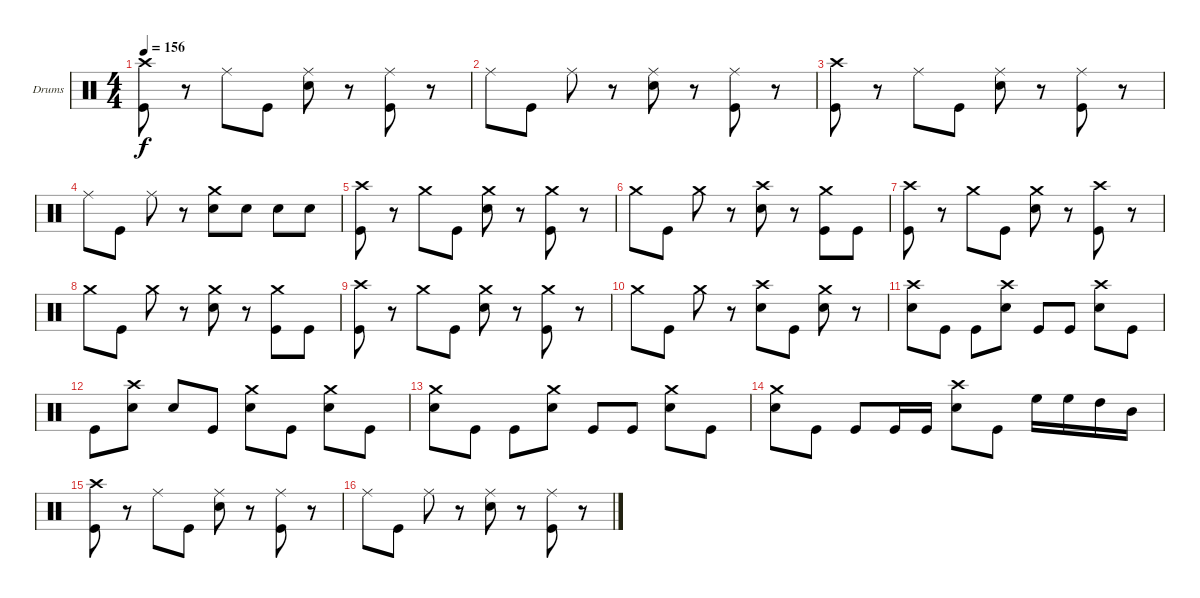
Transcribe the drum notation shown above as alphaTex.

\defaultSystemsLayout 4
\bracketExtendMode groupsimilarinstruments
\firstSystemTrackNameOrientation horizontal
\otherSystemsTrackNameOrientation horizontal
\track ("Anton Kubrak" "Drums") {instrument percussion}
\staff {score}
\articulation defaults
\ts (4 4)
\tempo 156
\clef neutral
\scale
0.333333
\ks c
("Crash high (hit)" "Kick (hit)").8{dy f} r.8 "Ride (middle)".8 "Kick (hit)".8 ("Ride (middle)" "Snare (hit) 2").8 r.8 ("Ride (middle)" "Kick (hit)").8 r.8 |
\scale
0.333333 "Ride (middle)".8 "Kick (hit)".8 "Ride (middle)".8 r.8 ("Ride (middle)" "Snare (hit) 2").8 r.8 ("Ride (middle)" "Kick (hit)").8 r.8 |
\scale
0.333333 ("Crash high (hit)" "Kick (hit)").8 r.8 "Ride (middle)".8 "Kick (hit)".8 ("Ride (middle)" "Snare (hit) 2").8 r.8 ("Ride (middle)" "Kick (hit)").8 r.8 |
\scale
0.333333 "Ride (middle)".8 "Kick (hit)".8 "Ride (middle)".8 r.8 ("Crash medium (hit)" "Snare (hit) 2").8 "Snare (hit) 2".8 "Snare (hit) 2".8 "Snare (hit) 2".8 |
\scale
0.333333 ("Crash high (hit)" "Kick (hit)").8 r.8 "Crash medium (hit)".8 "Kick (hit)".8 ("Crash medium (hit)" "Snare (hit) 2").8 r.8 ("Crash medium (hit)" "Kick (hit)").8 r.8 |
\scale
0.333333 "Crash medium (hit)".8 "Kick (hit)".8 "Crash medium (hit)".8 r.8 ("Crash high (hit)" "Snare (hit) 2").8 r.8 ("Crash medium (hit)" "Kick (hit)").8 "Kick (hit)".8 |
\scale
0.333333 ("Crash high (hit)" "Kick (hit)").8 r.8 "Crash medium (hit)".8 "Kick (hit)".8 ("Crash medium (hit)" "Snare (hit) 2").8 r.8 ("Crash high (hit)" "Kick (hit)").8 r.8 |
\scale
0.333333 "Crash medium (hit)".8 "Kick (hit)".8 "Crash medium (hit)".8 r.8 ("Crash medium (hit)" "Snare (hit) 2").8 r.8 ("Crash medium (hit)" "Kick (hit)").8 "Kick (hit)".8 |
\scale
0.333333 ("Crash high (hit)" "Kick (hit)").8 r.8 "Crash medium (hit)".8 "Kick (hit)".8 ("Crash medium (hit)" "Snare (hit) 2").8 r.8 ("Crash medium (hit)" "Kick (hit)").8 r.8 |
\scale
0.333333 "Crash medium (hit)".8 "Kick (hit)".8 "Crash medium (hit)".8 r.8 ("Crash high (hit)" "Snare (hit) 2").8 "Kick (hit)".8 ("Crash medium (hit)" "Snare (hit) 2").8 r.8 |
\scale
0.333333 ("Crash high (hit)" "Snare (hit) 2").8 "Kick (hit)".8 "Kick (hit)".8 ("Crash high (hit)" "Snare (hit) 2").8 "Kick (hit)".8 "Kick (hit)".8 ("Crash high (hit)" "Snare (hit) 2").8 "Kick (hit)".8 |
\scale
0.333333 "Kick (hit)".8 ("Crash high (hit)" "Snare (hit) 2").8 "Snare (hit) 2".8 "Kick (hit)".8 ("Crash medium (hit)" "Snare (hit) 2").8 "Kick (hit)".8 ("Crash medium (hit)" "Snare (hit) 2").8 "Kick (hit)".8 |
\scale
0.333333 ("Crash medium (hit)" "Snare (hit) 2").8 "Kick (hit)".8 "Kick (hit)".8 ("Crash medium (hit)" "Snare (hit) 2").8 "Kick (hit)".8 "Kick (hit)".8 ("Crash medium (hit)" "Snare (hit) 2").8 "Kick (hit)".8 |
\scale
0.333333 ("Crash medium (hit)" "Snare (hit) 2").8 "Kick (hit)".8 "Kick (hit)".8 "Kick (hit)".16 "Kick (hit)".16 ("Crash high (hit)" "Snare (hit) 2").8 "Kick (hit)".8 "High Floor Tom (hit)".16 "High Floor Tom (hit)".16 "High Tom (hit)".16 "Mid Tom (hit)".16 |
\scale
0.333333 ("Crash high (hit)" "Kick (hit)").8 r.8 "Ride (middle)".8 "Kick (hit)".8 ("Ride (middle)" "Snare (hit) 2").8 r.8 ("Ride (middle)" "Kick (hit)").8 r.8 |
\scale
0.333333 "Ride (middle)".8 "Kick (hit)".8 "Ride (middle)".8 r.8 ("Ride (middle)" "Snare (hit) 2").8 r.8 ("Ride (middle)" "Kick (hit)").8 r.8
